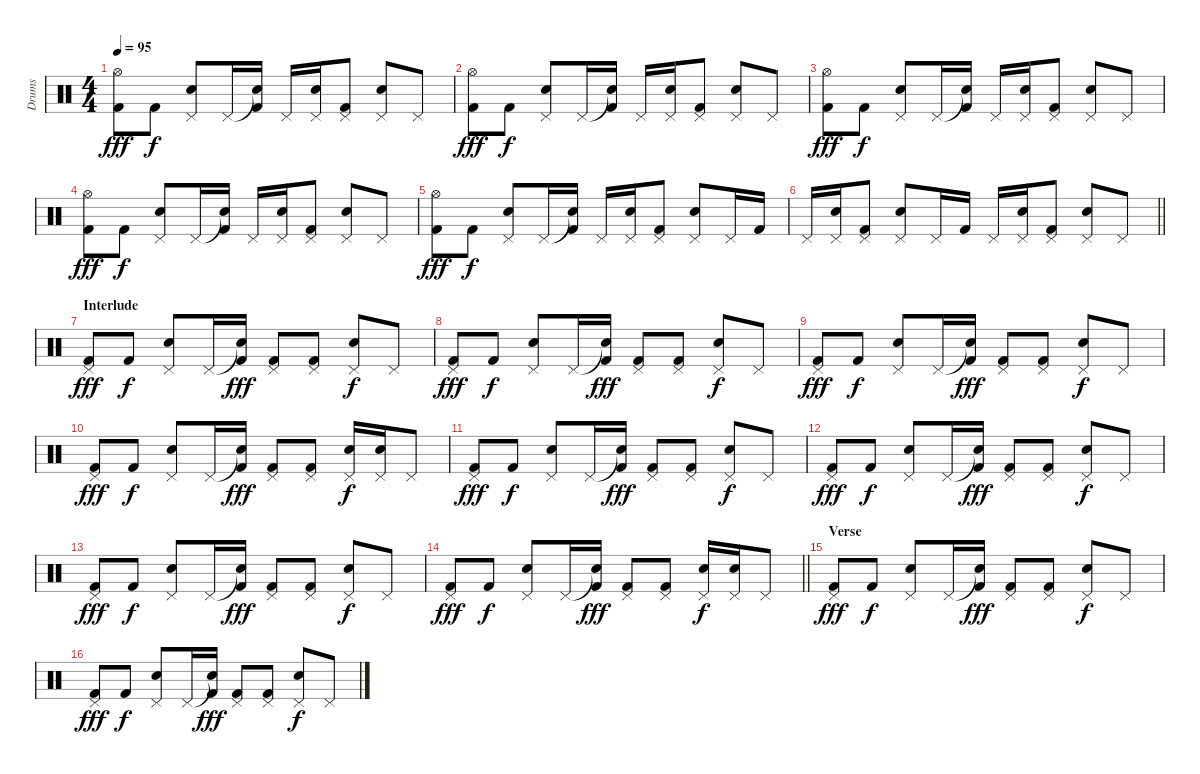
\track ("Drums" "Drums") {instrument percussion}
\staff {score}
\articulation defaults
\ts (4 4)
\tempo 95
\clef neutral
\ks c
("Hi-Hat (open)" "Kick (hit) 2").8{dy fff} "Kick (hit) 2".8{dy f} ("Pedal Hi-Hat (hit)" "Snare (hit) 2").8 "Pedal Hi-Hat (hit)".16 ("Snare (hit)"{t} "Kick (hit) 2").16 "Pedal Hi-Hat (hit)".16 ("Pedal Hi-Hat (hit)" "Snare (hit) 2").16 ("Pedal Hi-Hat (hit)" "Kick (hit) 2").8 ("Pedal Hi-Hat (hit)" "Snare (hit) 2").8 "Pedal Hi-Hat (hit)".8 |
("Hi-Hat (open)" "Kick (hit) 2").8{dy fff} "Kick (hit) 2".8{dy f} ("Pedal Hi-Hat (hit)" "Snare (hit) 2").8 "Pedal Hi-Hat (hit)".16 ("Snare (hit)"{t} "Kick (hit) 2").16 "Pedal Hi-Hat (hit)".16 ("Pedal Hi-Hat (hit)" "Snare (hit) 2").16 ("Pedal Hi-Hat (hit)" "Kick (hit) 2").8 ("Pedal Hi-Hat (hit)" "Snare (hit) 2").8 "Pedal Hi-Hat (hit)".8 |
("Hi-Hat (open)" "Kick (hit) 2").8{dy fff} "Kick (hit) 2".8{dy f} ("Pedal Hi-Hat (hit)" "Snare (hit) 2").8 "Pedal Hi-Hat (hit)".16 ("Snare (hit)"{t} "Kick (hit) 2").16 "Pedal Hi-Hat (hit)".16 ("Pedal Hi-Hat (hit)" "Snare (hit) 2").16 ("Pedal Hi-Hat (hit)" "Kick (hit) 2").8 ("Pedal Hi-Hat (hit)" "Snare (hit) 2").8 "Pedal Hi-Hat (hit)".8 |
("Hi-Hat (open)" "Kick (hit) 2").8{dy fff} "Kick (hit) 2".8{dy f} ("Pedal Hi-Hat (hit)" "Snare (hit) 2").8 "Pedal Hi-Hat (hit)".16 ("Snare (hit)"{t} "Kick (hit) 2").16 "Pedal Hi-Hat (hit)".16 ("Pedal Hi-Hat (hit)" "Snare (hit) 2").16 ("Pedal Hi-Hat (hit)" "Kick (hit) 2").8 ("Pedal Hi-Hat (hit)" "Snare (hit) 2").8 "Pedal Hi-Hat (hit)".8 |
("Hi-Hat (open)" "Kick (hit) 2").8{dy fff} "Kick (hit) 2".8{dy f} ("Pedal Hi-Hat (hit)" "Snare (hit) 2").8 "Pedal Hi-Hat (hit)".16 ("Snare (hit)"{t} "Kick (hit) 2").16 "Pedal Hi-Hat (hit)".16 ("Pedal Hi-Hat (hit)" "Snare (hit) 2").16 ("Pedal Hi-Hat (hit)" "Kick (hit) 2").8 ("Pedal Hi-Hat (hit)" "Snare (hit) 2").8 "Pedal Hi-Hat (hit)".16 "Kick (hit) 2".16 |
\barLineRight lightlight "Pedal Hi-Hat (hit)".16
("Pedal Hi-Hat (hit)" "Snare (hit) 2").16 ("Pedal Hi-Hat (hit)" "Kick (hit) 2").8 ("Pedal Hi-Hat (hit)" "Snare (hit) 2").8 "Pedal Hi-Hat (hit)".16 "Kick (hit) 2".16 "Pedal Hi-Hat (hit)".16 ("Pedal Hi-Hat (hit)" "Snare (hit) 2").16 ("Pedal Hi-Hat (hit)" "Kick (hit) 2").8 ("Pedal Hi-Hat (hit)" "Snare (hit) 2").8 "Pedal Hi-Hat (hit)".8 |
\section ("" "Interlude")
("Pedal Hi-Hat (hit)" "Kick (hit) 2").8{dy fff} "Kick (hit) 2".8{dy f} ("Pedal Hi-Hat (hit)" "Snare (hit) 2").8 "Pedal Hi-Hat (hit)".16 ("Snare (hit)"{t} "Kick (hit) 2").16{dy fff} ("Pedal Hi-Hat (hit)" "Kick (hit) 2").8 ("Pedal Hi-Hat (hit)" "Kick (hit) 2").8 ("Pedal Hi-Hat (hit)" "Snare (hit) 2").8{dy f} "Pedal Hi-Hat (hit)".8 |
("Pedal Hi-Hat (hit)" "Kick (hit) 2").8{dy fff} "Kick (hit) 2".8{dy f} ("Pedal Hi-Hat (hit)" "Snare (hit) 2").8 "Pedal Hi-Hat (hit)".16 ("Snare (hit)"{t} "Kick (hit) 2").16{dy fff} ("Pedal Hi-Hat (hit)" "Kick (hit) 2").8 ("Pedal Hi-Hat (hit)" "Kick (hit) 2").8 ("Pedal Hi-Hat (hit)" "Snare (hit) 2").8{dy f} "Pedal Hi-Hat (hit)".8 |
("Pedal Hi-Hat (hit)" "Kick (hit) 2").8{dy fff} "Kick (hit) 2".8{dy f} ("Pedal Hi-Hat (hit)" "Snare (hit) 2").8 "Pedal Hi-Hat (hit)".16 ("Snare (hit)"{t} "Kick (hit) 2").16{dy fff} ("Pedal Hi-Hat (hit)" "Kick (hit) 2").8 ("Pedal Hi-Hat (hit)" "Kick (hit) 2").8 ("Pedal Hi-Hat (hit)" "Snare (hit) 2").8{dy f} "Pedal Hi-Hat (hit)".8 |
("Pedal Hi-Hat (hit)" "Kick (hit) 2").8{dy fff} "Kick (hit) 2".8{dy f} ("Pedal Hi-Hat (hit)" "Snare (hit) 2").8 "Pedal Hi-Hat (hit)".16 ("Snare (hit)"{t} "Kick (hit) 2").16{dy fff} ("Pedal Hi-Hat (hit)" "Kick (hit) 2").8 ("Pedal Hi-Hat (hit)" "Kick (hit) 2").8 ("Pedal Hi-Hat (hit)" "Snare (hit) 2").16{dy f} ("Pedal Hi-Hat (hit)" "Snare (hit) 2").16 "Pedal Hi-Hat (hit)".8 |
("Pedal Hi-Hat (hit)" "Kick (hit) 2").8{dy fff} "Kick (hit) 2".8{dy f} ("Pedal Hi-Hat (hit)" "Snare (hit) 2").8 "Pedal Hi-Hat (hit)".16 ("Snare (hit)"{t} "Kick (hit) 2").16{dy fff} ("Pedal Hi-Hat (hit)" "Kick (hit) 2").8 ("Pedal Hi-Hat (hit)" "Kick (hit) 2").8 ("Pedal Hi-Hat (hit)" "Snare (hit) 2").8{dy f} "Pedal Hi-Hat (hit)".8 |
("Pedal Hi-Hat (hit)" "Kick (hit) 2").8{dy fff} "Kick (hit) 2".8{dy f} ("Pedal Hi-Hat (hit)" "Snare (hit) 2").8 "Pedal Hi-Hat (hit)".16 ("Snare (hit)"{t} "Kick (hit) 2").16{dy fff} ("Pedal Hi-Hat (hit)" "Kick (hit) 2").8 ("Pedal Hi-Hat (hit)" "Kick (hit) 2").8 ("Pedal Hi-Hat (hit)" "Snare (hit) 2").8{dy f} "Pedal Hi-Hat (hit)".8 |
("Pedal Hi-Hat (hit)" "Kick (hit) 2").8{dy fff} "Kick (hit) 2".8{dy f} ("Pedal Hi-Hat (hit)" "Snare (hit) 2").8 "Pedal Hi-Hat (hit)".16 ("Snare (hit)"{t} "Kick (hit) 2").16{dy fff} ("Pedal Hi-Hat (hit)" "Kick (hit) 2").8 ("Pedal Hi-Hat (hit)" "Kick (hit) 2").8 ("Pedal Hi-Hat (hit)" "Snare (hit) 2").8{dy f} "Pedal Hi-Hat (hit)".8 |
\barLineRight lightlight
("Pedal Hi-Hat (hit)" "Kick (hit) 2").8{dy fff} "Kick (hit) 2".8{dy f} ("Pedal Hi-Hat (hit)" "Snare (hit) 2").8 "Pedal Hi-Hat (hit)".16 ("Snare (hit)"{t} "Kick (hit) 2").16{dy fff} ("Pedal Hi-Hat (hit)" "Kick (hit) 2").8 ("Pedal Hi-Hat (hit)" "Kick (hit) 2").8 ("Pedal Hi-Hat (hit)" "Snare (hit) 2").16{dy f} ("Pedal Hi-Hat (hit)" "Snare (hit) 2").16 "Pedal Hi-Hat (hit)".8 |
\section ("" "Verse")
("Pedal Hi-Hat (hit)" "Kick (hit) 2").8{dy fff} "Kick (hit) 2".8{dy f} ("Pedal Hi-Hat (hit)" "Snare (hit) 2").8 "Pedal Hi-Hat (hit)".16 ("Snare (hit)"{t} "Kick (hit) 2").16{dy fff} ("Pedal Hi-Hat (hit)" "Kick (hit) 2").8 ("Pedal Hi-Hat (hit)" "Kick (hit) 2").8 ("Pedal Hi-Hat (hit)" "Snare (hit) 2").8{dy f} "Pedal Hi-Hat (hit)".8 |
("Pedal Hi-Hat (hit)" "Kick (hit) 2").8{dy fff} "Kick (hit) 2".8{dy f} ("Pedal Hi-Hat (hit)" "Snare (hit) 2").8 "Pedal Hi-Hat (hit)".16 ("Snare (hit)"{t} "Kick (hit) 2").16{dy fff} ("Pedal Hi-Hat (hit)" "Kick (hit) 2").8 ("Pedal Hi-Hat (hit)" "Kick (hit) 2").8 ("Pedal Hi-Hat (hit)" "Snare (hit) 2").8{dy f} "Pedal Hi-Hat (hit)".8
